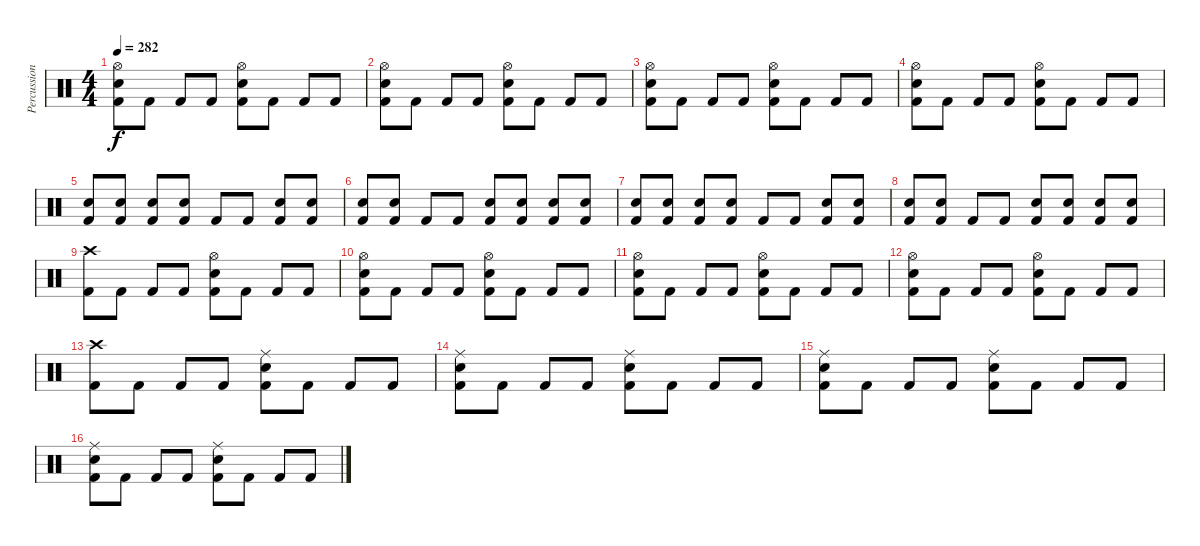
\track ("Percussion" "Percussion") {instrument percussion}
\staff {score}
\articulation defaults
\ts (4 4)
\tempo 282
\clef neutral
\ks c
("Kick (hit) 2" "Snare (hit) 2" "Hi-Hat (open)").8{dy f} "Kick (hit) 2".8 "Kick (hit) 2".8 "Kick (hit) 2".8 ("Kick (hit) 2" "Snare (hit) 2" "Hi-Hat (open)").8 "Kick (hit) 2".8 "Kick (hit) 2".8 "Kick (hit) 2".8 |
("Kick (hit) 2" "Snare (hit) 2" "Hi-Hat (open)").8 "Kick (hit) 2".8 "Kick (hit) 2".8 "Kick (hit) 2".8 ("Kick (hit) 2" "Snare (hit) 2" "Hi-Hat (open)").8 "Kick (hit) 2".8 "Kick (hit) 2".8 "Kick (hit) 2".8 |
("Kick (hit) 2" "Snare (hit) 2" "Hi-Hat (open)").8 "Kick (hit) 2".8 "Kick (hit) 2".8 "Kick (hit) 2".8 ("Kick (hit) 2" "Snare (hit) 2" "Hi-Hat (open)").8 "Kick (hit) 2".8 "Kick (hit) 2".8 "Kick (hit) 2".8 |
("Kick (hit) 2" "Snare (hit) 2" "Hi-Hat (open)").8 "Kick (hit) 2".8 "Kick (hit) 2".8 "Kick (hit) 2".8 ("Kick (hit) 2" "Snare (hit) 2" "Hi-Hat (open)").8 "Kick (hit) 2".8 "Kick (hit) 2".8 "Kick (hit) 2".8 |
("Kick (hit) 2" "Snare (hit) 2").8 ("Kick (hit) 2" "Snare (hit) 2").8 ("Kick (hit) 2" "Snare (hit) 2").8 ("Kick (hit) 2" "Snare (hit) 2").8 "Kick (hit) 2".8 "Kick (hit) 2".8 ("Kick (hit) 2" "Snare (hit) 2").8 ("Kick (hit) 2" "Snare (hit) 2").8 |
("Kick (hit) 2" "Snare (hit) 2").8 ("Kick (hit) 2" "Snare (hit) 2").8 "Kick (hit) 2".8 "Kick (hit) 2".8 ("Kick (hit) 2" "Snare (hit) 2").8 ("Kick (hit) 2" "Snare (hit) 2").8 ("Kick (hit) 2" "Snare (hit) 2").8 ("Kick (hit) 2" "Snare (hit) 2").8 |
("Kick (hit) 2" "Snare (hit) 2").8 ("Kick (hit) 2" "Snare (hit) 2").8 ("Kick (hit) 2" "Snare (hit) 2").8 ("Kick (hit) 2" "Snare (hit) 2").8 "Kick (hit) 2".8 "Kick (hit) 2".8 ("Kick (hit) 2" "Snare (hit) 2").8 ("Kick (hit) 2" "Snare (hit) 2").8 |
("Kick (hit) 2" "Snare (hit) 2").8 ("Kick (hit) 2" "Snare (hit) 2").8 "Kick (hit) 2".8 "Kick (hit) 2".8 ("Kick (hit) 2" "Snare (hit) 2").8 ("Kick (hit) 2" "Snare (hit) 2").8 ("Kick (hit) 2" "Snare (hit) 2").8 ("Kick (hit) 2" "Snare (hit) 2").8 |
("Kick (hit) 2" "Crash high (hit)").8 "Kick (hit) 2".8 "Kick (hit) 2".8 "Kick (hit) 2".8 ("Kick (hit) 2" "Snare (hit) 2" "Hi-Hat (open)").8 "Kick (hit) 2".8 "Kick (hit) 2".8 "Kick (hit) 2".8 |
("Kick (hit) 2" "Snare (hit) 2" "Hi-Hat (open)").8 "Kick (hit) 2".8 "Kick (hit) 2".8 "Kick (hit) 2".8 ("Kick (hit) 2" "Snare (hit) 2" "Hi-Hat (open)").8 "Kick (hit) 2".8 "Kick (hit) 2".8 "Kick (hit) 2".8 |
("Kick (hit) 2" "Snare (hit) 2" "Hi-Hat (open)").8 "Kick (hit) 2".8 "Kick (hit) 2".8 "Kick (hit) 2".8 ("Kick (hit) 2" "Snare (hit) 2" "Hi-Hat (open)").8 "Kick (hit) 2".8 "Kick (hit) 2".8 "Kick (hit) 2".8 |
("Kick (hit) 2" "Snare (hit) 2" "Hi-Hat (open)").8 "Kick (hit) 2".8 "Kick (hit) 2".8 "Kick (hit) 2".8 ("Kick (hit) 2" "Snare (hit) 2" "Hi-Hat (open)").8 "Kick (hit) 2".8 "Kick (hit) 2".8 "Kick (hit) 2".8 |
("Kick (hit) 2" "Crash high (hit)").8 "Kick (hit) 2".8 "Kick (hit) 2".8 "Kick (hit) 2".8 ("Kick (hit) 2" "Snare (hit) 2" "Ride (middle)").8 "Kick (hit) 2".8 "Kick (hit) 2".8 "Kick (hit) 2".8 |
("Kick (hit) 2" "Snare (hit) 2" "Ride (middle)").8 "Kick (hit) 2".8 "Kick (hit) 2".8 "Kick (hit) 2".8 ("Kick (hit) 2" "Snare (hit) 2" "Ride (middle)").8 "Kick (hit) 2".8 "Kick (hit) 2".8 "Kick (hit) 2".8 |
("Kick (hit) 2" "Snare (hit) 2" "Ride (middle)").8 "Kick (hit) 2".8 "Kick (hit) 2".8 "Kick (hit) 2".8 ("Kick (hit) 2" "Snare (hit) 2" "Ride (middle)").8 "Kick (hit) 2".8 "Kick (hit) 2".8 "Kick (hit) 2".8 |
("Kick (hit) 2" "Snare (hit) 2" "Ride (middle)").8 "Kick (hit) 2".8 "Kick (hit) 2".8 "Kick (hit) 2".8 ("Kick (hit) 2" "Snare (hit) 2" "Ride (middle)").8 "Kick (hit) 2".8 "Kick (hit) 2".8 "Kick (hit) 2".8
